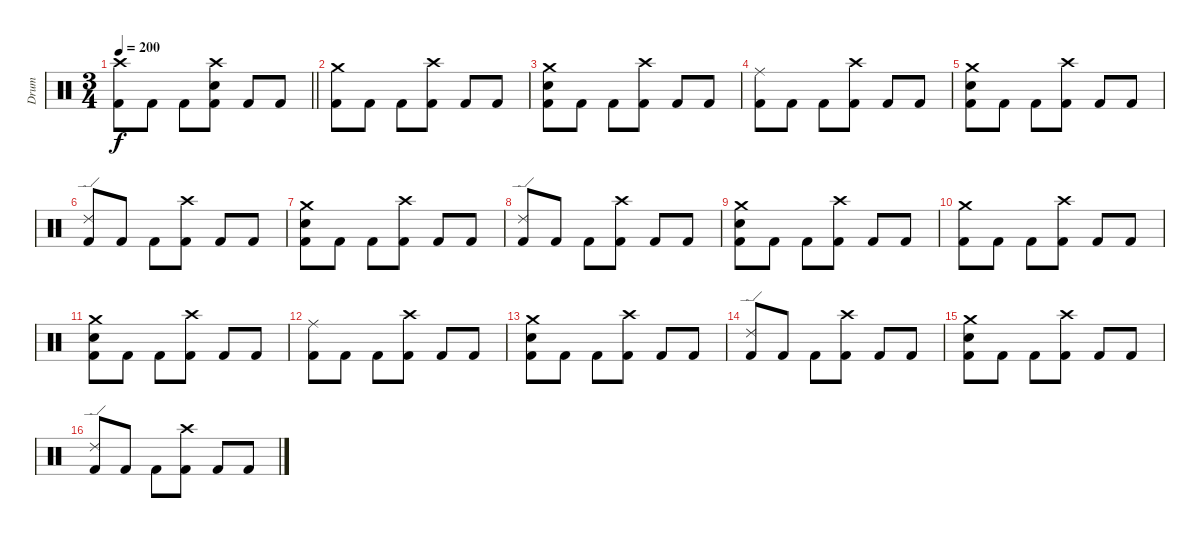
\track ("Drum" "Drum") {instrument percussion}
\staff {score}
\articulation defaults
\ts (3 4)
\tempo 200
\clef neutral
\barLineRight lightlight
\ks c
("Crash high (hit)" "Kick (hit) 2").8{dy f} "Kick (hit) 2".8 "Kick (hit) 2".8 ("Crash high (hit)" "Electric Snare (hit)" "Kick (hit) 2").8 "Kick (hit) 2".8 "Kick (hit) 2".8 |
("Crash medium (hit)" "Kick (hit) 2").8 "Kick (hit) 2".8 "Kick (hit) 2".8 ("Crash high (hit)" "Kick (hit) 2").8 "Kick (hit) 2".8 "Kick (hit) 2".8 |
("Crash medium (hit)" "Electric Snare (hit)" "Kick (hit) 2").8 "Kick (hit) 2".8 "Kick (hit) 2".8 ("Crash high (hit)" "Kick (hit) 2").8 "Kick (hit) 2".8 "Kick (hit) 2".8 |
("Ride (middle)" "Kick (hit) 2").8 "Kick (hit) 2".8 "Kick (hit) 2".8 ("Crash high (hit)" "Kick (hit) 2").8 "Kick (hit) 2".8 "Kick (hit) 2".8 |
("Crash medium (hit)" "Electric Snare (hit)" "Kick (hit) 2").8 "Kick (hit) 2".8 "Kick (hit) 2".8 ("Crash high (hit)" "Kick (hit) 2").8 "Kick (hit) 2".8 "Kick (hit) 2".8 |
("Ride (edge) 2" "Kick (hit) 2").8 "Kick (hit) 2".8 "Kick (hit) 2".8 ("Crash high (hit)" "Kick (hit) 2").8 "Kick (hit) 2".8 "Kick (hit) 2".8 |
("Crash medium (hit)" "Electric Snare (hit)" "Kick (hit) 2").8 "Kick (hit) 2".8 "Kick (hit) 2".8 ("Crash high (hit)" "Kick (hit) 2").8 "Kick (hit) 2".8 "Kick (hit) 2".8 |
("Ride (edge) 2" "Kick (hit) 2").8 "Kick (hit) 2".8 "Kick (hit) 2".8 ("Crash high (hit)" "Kick (hit) 2").8 "Kick (hit) 2".8 "Kick (hit) 2".8 |
("Crash medium (hit)" "Electric Snare (hit)" "Kick (hit) 2").8 "Kick (hit) 2".8 "Kick (hit) 2".8 ("Crash high (hit)" "Kick (hit) 2").8 "Kick (hit) 2".8 "Kick (hit) 2".8 |
("Crash medium (hit)" "Kick (hit) 2").8 "Kick (hit) 2".8 "Kick (hit) 2".8 ("Crash high (hit)" "Kick (hit) 2").8 "Kick (hit) 2".8 "Kick (hit) 2".8 |
("Crash medium (hit)" "Electric Snare (hit)" "Kick (hit) 2").8 "Kick (hit) 2".8 "Kick (hit) 2".8 ("Crash high (hit)" "Kick (hit) 2").8 "Kick (hit) 2".8 "Kick (hit) 2".8 |
("Ride (middle)" "Kick (hit) 2").8 "Kick (hit) 2".8 "Kick (hit) 2".8 ("Crash high (hit)" "Kick (hit) 2").8 "Kick (hit) 2".8 "Kick (hit) 2".8 |
("Crash medium (hit)" "Electric Snare (hit)" "Kick (hit) 2").8 "Kick (hit) 2".8 "Kick (hit) 2".8 ("Crash high (hit)" "Kick (hit) 2").8 "Kick (hit) 2".8 "Kick (hit) 2".8 |
("Ride (edge) 2" "Kick (hit) 2").8 "Kick (hit) 2".8 "Kick (hit) 2".8 ("Crash high (hit)" "Kick (hit) 2").8 "Kick (hit) 2".8 "Kick (hit) 2".8 |
("Crash medium (hit)" "Electric Snare (hit)" "Kick (hit) 2").8 "Kick (hit) 2".8 "Kick (hit) 2".8 ("Crash high (hit)" "Kick (hit) 2").8 "Kick (hit) 2".8 "Kick (hit) 2".8 |
("Ride (edge) 2" "Kick (hit) 2").8 "Kick (hit) 2".8 "Kick (hit) 2".8 ("Crash high (hit)" "Kick (hit) 2").8 "Kick (hit) 2".8 "Kick (hit) 2".8
